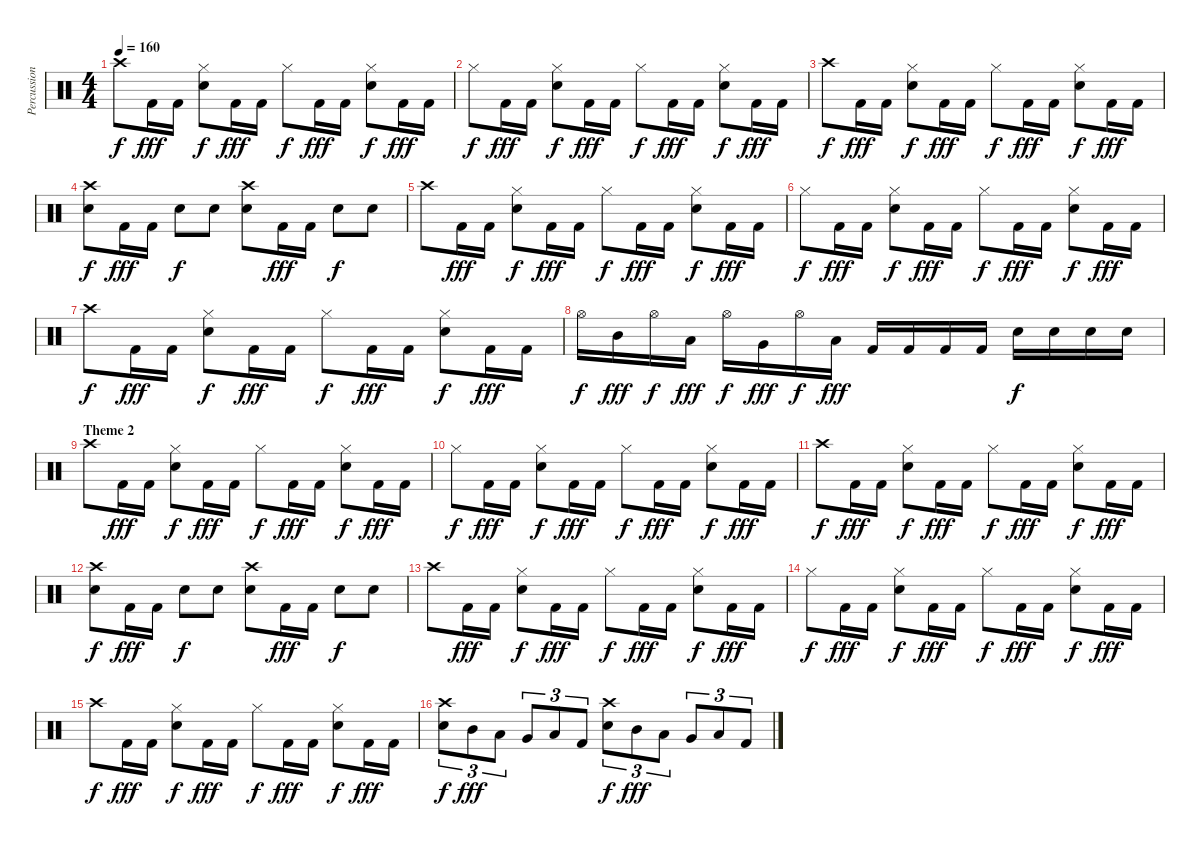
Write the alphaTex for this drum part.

\track ("Percussion" "Percussion") {instrument percussion}
\staff {score}
\articulation defaults
\ts (4 4)
\tempo 160
\clef neutral
\ks c "Crash high (hit)".8{dy f} "Kick (hit) 2".16{dy fff} "Kick (hit) 2".16
("Hi-Hat (closed)" "Electric Snare (hit)").8{dy f} "Kick (hit) 2".16{dy fff} "Kick (hit) 2".16 "Hi-Hat (closed)".8{dy f} "Kick (hit) 2".16{dy fff} "Kick (hit) 2".16 ("Hi-Hat (closed)" "Electric Snare (hit)").8{dy f} "Kick (hit) 2".16{dy fff} "Kick (hit) 2".16 |
"Hi-Hat (closed)".8{dy f} "Kick (hit) 2".16{dy fff} "Kick (hit) 2".16 ("Hi-Hat (closed)" "Electric Snare (hit)").8{dy f} "Kick (hit) 2".16{dy fff} "Kick (hit) 2".16 "Hi-Hat (closed)".8{dy f} "Kick (hit) 2".16{dy fff} "Kick (hit) 2".16 ("Hi-Hat (closed)" "Electric Snare (hit)").8{dy f} "Kick (hit) 2".16{dy fff} "Kick (hit) 2".16 |
"Crash high (hit)".8{dy f} "Kick (hit) 2".16{dy fff} "Kick (hit) 2".16 ("Hi-Hat (closed)" "Electric Snare (hit)").8{dy f} "Kick (hit) 2".16{dy fff} "Kick (hit) 2".16 "Hi-Hat (closed)".8{dy f} "Kick (hit) 2".16{dy fff} "Kick (hit) 2".16 ("Hi-Hat (closed)" "Electric Snare (hit)").8{dy f} "Kick (hit) 2".16{dy fff} "Kick (hit) 2".16 |
("Crash high (hit)" "Electric Snare (hit)").8{dy f} "Kick (hit) 2".16{dy fff} "Kick (hit) 2".16 "Electric Snare (hit)".8{dy f} "Electric Snare (hit)".8 ("Crash high (hit)" "Electric Snare (hit)").8 "Kick (hit) 2".16{dy fff} "Kick (hit) 2".16 "Electric Snare (hit)".8{dy f} "Electric Snare (hit)".8 |
"Crash high (hit)".8 "Kick (hit) 2".16{dy fff} "Kick (hit) 2".16 ("Hi-Hat (closed)" "Electric Snare (hit)").8{dy f} "Kick (hit) 2".16{dy fff} "Kick (hit) 2".16 "Hi-Hat (closed)".8{dy f} "Kick (hit) 2".16{dy fff} "Kick (hit) 2".16 ("Hi-Hat (closed)" "Electric Snare (hit)").8{dy f} "Kick (hit) 2".16{dy fff} "Kick (hit) 2".16 |
"Hi-Hat (closed)".8{dy f} "Kick (hit) 2".16{dy fff} "Kick (hit) 2".16 ("Hi-Hat (closed)" "Electric Snare (hit)").8{dy f} "Kick (hit) 2".16{dy fff} "Kick (hit) 2".16 "Hi-Hat (closed)".8{dy f} "Kick (hit) 2".16{dy fff} "Kick (hit) 2".16 ("Hi-Hat (closed)" "Electric Snare (hit)").8{dy f} "Kick (hit) 2".16{dy fff} "Kick (hit) 2".16 |
"Crash high (hit)".8{dy f} "Kick (hit) 2".16{dy fff} "Kick (hit) 2".16 ("Hi-Hat (closed)" "Electric Snare (hit)").8{dy f} "Kick (hit) 2".16{dy fff} "Kick (hit) 2".16 "Hi-Hat (closed)".8{dy f} "Kick (hit) 2".16{dy fff} "Kick (hit) 2".16 ("Hi-Hat (closed)" "Electric Snare (hit)").8{dy f} "Kick (hit) 2".16{dy fff} "Kick (hit) 2".16 |
"Hi-Hat (open)".16{dy f} "Mid Tom (hit)".16{dy fff} "Hi-Hat (open)".16{dy f} "Low Tom (hit)".16{dy fff} "Hi-Hat (open)".16{dy f} "Very Low Tom (hit)".16{dy fff} "Hi-Hat (open)".16{dy f} "Low Floor Tom (hit)".16{dy fff} "Kick (hit) 2".16 "Kick (hit) 2".16 "Kick (hit) 2".16 "Kick (hit) 2".16 "Electric Snare (hit)".16{dy f} "Electric Snare (hit)".16 "Electric Snare (hit)".16 "Electric Snare (hit)".16 |
\section ("" "Theme 2")
"Crash high (hit)".8 "Kick (hit) 2".16{dy fff} "Kick (hit) 2".16 ("Hi-Hat (closed)" "Electric Snare (hit)").8{dy f} "Kick (hit) 2".16{dy fff} "Kick (hit) 2".16 "Hi-Hat (closed)".8{dy f} "Kick (hit) 2".16{dy fff} "Kick (hit) 2".16 ("Hi-Hat (closed)" "Electric Snare (hit)").8{dy f} "Kick (hit) 2".16{dy fff} "Kick (hit) 2".16 |
"Hi-Hat (closed)".8{dy f} "Kick (hit) 2".16{dy fff} "Kick (hit) 2".16 ("Hi-Hat (closed)" "Electric Snare (hit)").8{dy f} "Kick (hit) 2".16{dy fff} "Kick (hit) 2".16 "Hi-Hat (closed)".8{dy f} "Kick (hit) 2".16{dy fff} "Kick (hit) 2".16 ("Hi-Hat (closed)" "Electric Snare (hit)").8{dy f} "Kick (hit) 2".16{dy fff} "Kick (hit) 2".16 |
"Crash high (hit)".8{dy f} "Kick (hit) 2".16{dy fff} "Kick (hit) 2".16 ("Hi-Hat (closed)" "Electric Snare (hit)").8{dy f} "Kick (hit) 2".16{dy fff} "Kick (hit) 2".16 "Hi-Hat (closed)".8{dy f} "Kick (hit) 2".16{dy fff} "Kick (hit) 2".16 ("Hi-Hat (closed)" "Electric Snare (hit)").8{dy f} "Kick (hit) 2".16{dy fff} "Kick (hit) 2".16 |
("Crash high (hit)" "Electric Snare (hit)").8{dy f} "Kick (hit) 2".16{dy fff} "Kick (hit) 2".16 "Electric Snare (hit)".8{dy f} "Electric Snare (hit)".8 ("Crash high (hit)" "Electric Snare (hit)").8 "Kick (hit) 2".16{dy fff} "Kick (hit) 2".16 "Electric Snare (hit)".8{dy f} "Electric Snare (hit)".8 |
"Crash high (hit)".8 "Kick (hit) 2".16{dy fff} "Kick (hit) 2".16 ("Hi-Hat (closed)" "Electric Snare (hit)").8{dy f} "Kick (hit) 2".16{dy fff} "Kick (hit) 2".16 "Hi-Hat (closed)".8{dy f} "Kick (hit) 2".16{dy fff} "Kick (hit) 2".16 ("Hi-Hat (closed)" "Electric Snare (hit)").8{dy f} "Kick (hit) 2".16{dy fff} "Kick (hit) 2".16 |
"Hi-Hat (closed)".8{dy f} "Kick (hit) 2".16{dy fff} "Kick (hit) 2".16 ("Hi-Hat (closed)" "Electric Snare (hit)").8{dy f} "Kick (hit) 2".16{dy fff} "Kick (hit) 2".16 "Hi-Hat (closed)".8{dy f} "Kick (hit) 2".16{dy fff} "Kick (hit) 2".16 ("Hi-Hat (closed)" "Electric Snare (hit)").8{dy f} "Kick (hit) 2".16{dy fff} "Kick (hit) 2".16 |
"Crash high (hit)".8{dy f} "Kick (hit) 2".16{dy fff} "Kick (hit) 2".16 ("Hi-Hat (closed)" "Electric Snare (hit)").8{dy f} "Kick (hit) 2".16{dy fff} "Kick (hit) 2".16 "Hi-Hat (closed)".8{dy f} "Kick (hit) 2".16{dy fff} "Kick (hit) 2".16 ("Hi-Hat (closed)" "Electric Snare (hit)").8{dy f} "Kick (hit) 2".16{dy fff} "Kick (hit) 2".16 |
("Crash high (hit)" "Electric Snare (hit)").8{tu (3 2) dy f} "Mid Tom (hit)".8{tu (3 2) dy fff} "Low Tom (hit)".8{tu (3 2)} "Very Low Tom (hit)".8{tu (3 2)} "Low Floor Tom (hit)".8{tu (3 2)} "Kick (hit) 2".8{tu (3 2)} ("Crash high (hit)" "Electric Snare (hit)").8{tu (3 2) dy f} "Mid Tom (hit)".8{tu (3 2) dy fff} "Low Tom (hit)".8{tu (3 2)} "Very Low Tom (hit)".8{tu (3 2)} "Low Floor Tom (hit)".8{tu (3 2)} "Kick (hit) 2".8{tu (3 2)}
